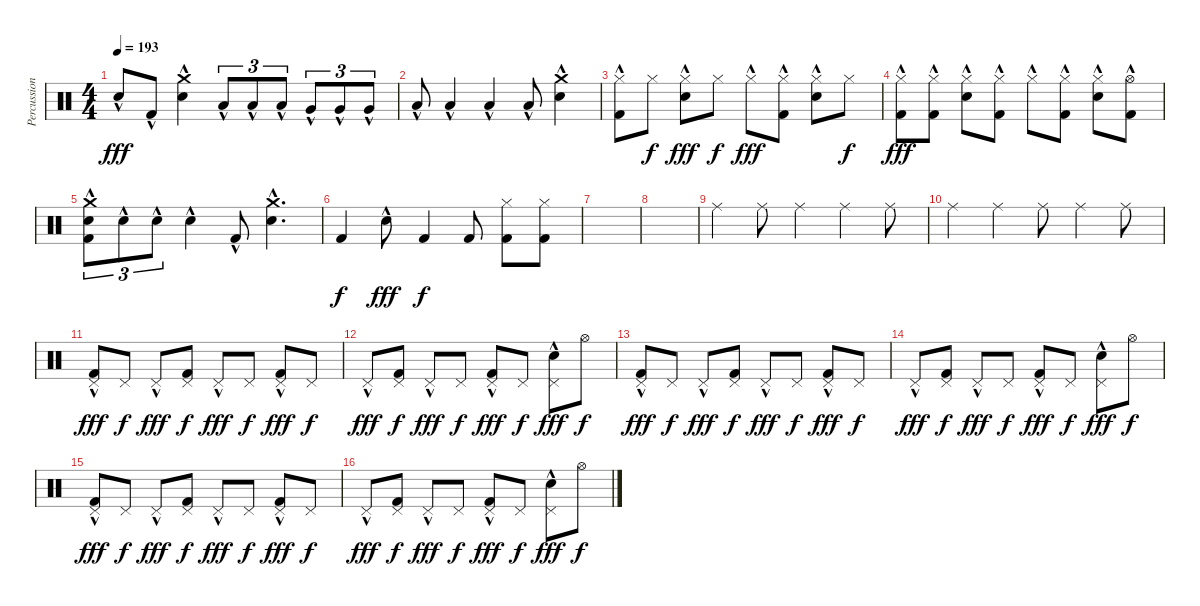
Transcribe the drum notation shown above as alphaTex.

\track ("Percussion" "Percussion") {instrument percussion}
\staff {score}
\articulation defaults
\ts (4 4)
\tempo 193
\clef neutral
\ks c "Electric Snare (hit)"{hac}.8{dy fff} "Kick (hit) 2"{hac}.8
("Crash medium (hit)"{hac} "Electric Snare (hit)"{hac}).4 "Low Tom (hit)"{hac}.8{tu (3 2)} "Low Tom (hit)"{hac}.8{tu (3 2)} "Low Tom (hit)"{hac}.8{tu (3 2)} "Very Low Tom (hit)"{hac}.8{tu (3 2)} "Very Low Tom (hit)"{hac}.8{tu (3 2)} "Very Low Tom (hit)"{hac}.8{tu (3 2)} |
"Low Floor Tom (hit)"{hac}.8 "Low Floor Tom (hit)"{hac}.4 "Low Floor Tom (hit)"{hac}.4 "Low Floor Tom (hit)"{hac}.8 ("Crash medium (hit)"{hac} "Electric Snare (hit)"{hac}).4 |
("Hi-Hat (closed)"{hac} "Kick (hit) 2"{hac}).8 "Hi-Hat (closed)".8{dy f} ("Hi-Hat (closed)"{hac} "Electric Snare (hit)"{hac}).8{dy fff} "Hi-Hat (closed)".8{dy f} "Hi-Hat (closed)"{hac}.8{dy fff} ("Hi-Hat (closed)" "Kick (hit) 2"{hac}).8 ("Hi-Hat (closed)"{hac} "Electric Snare (hit)"{hac}).8 "Hi-Hat (closed)".8{dy f} |
("Hi-Hat (closed)"{hac} "Kick (hit) 2"{hac}).8{dy fff} ("Hi-Hat (closed)" "Kick (hit) 2"{hac}).8 ("Hi-Hat (closed)"{hac} "Electric Snare (hit)"{hac}).8 ("Hi-Hat (closed)" "Kick (hit) 2"{hac}).8 "Hi-Hat (closed)"{hac}.8 ("Hi-Hat (closed)" "Kick (hit) 2"{hac}).8 ("Hi-Hat (closed)"{hac} "Electric Snare (hit)"{hac}).8 ("Hi-Hat (open)" "Kick (hit) 2"{hac}).8 |
("Crash medium (hit)" "Electric Snare (hit)"{hac} "Kick (hit) 2"{hac}).8{tu (3 2)} "Electric Snare (hit)"{hac}.8{tu (3 2)} "Electric Snare (hit)"{hac}.8{tu (3 2)} "Electric Snare (hit)"{hac}.4 "Kick (hit) 2"{hac}.8 ("Crash medium (hit)" "Electric Snare (hit)"{hac}).4{d} |
"Kick (hit) 2".4{dy f} "Electric Snare (hit)"{hac}.8{dy fff} "Kick (hit) 2".4{dy f} "Kick (hit) 2".8 ("Hi-Hat (closed)" "Kick (hit) 2").8 ("Hi-Hat (closed)" "Kick (hit) 2").8 |
|
|
"Ride (middle)".4 "Ride (middle)".8 "Ride (middle)".4 "Ride (middle)".4 "Ride (middle)".8 |
"Ride (middle)".4 "Ride (middle)".4 "Ride (middle)".8 "Ride (middle)".4 "Ride (middle)".8 |
("Pedal Hi-Hat (hit)"{hac} "Kick (hit) 2").8{dy fff} "Pedal Hi-Hat (hit)".8{dy f} "Pedal Hi-Hat (hit)"{hac}.8{dy fff} ("Pedal Hi-Hat (hit)" "Kick (hit) 2").8{dy f} "Pedal Hi-Hat (hit)"{hac}.8{dy fff} "Pedal Hi-Hat (hit)".8{dy f} ("Pedal Hi-Hat (hit)"{hac} "Kick (hit) 2").8{dy fff} "Pedal Hi-Hat (hit)".8{dy f} |
"Pedal Hi-Hat (hit)"{hac}.8{dy fff} ("Pedal Hi-Hat (hit)" "Kick (hit) 2").8{dy f} "Pedal Hi-Hat (hit)"{hac}.8{dy fff} "Pedal Hi-Hat (hit)".8{dy f} ("Pedal Hi-Hat (hit)"{hac} "Kick (hit) 2").8{dy fff} "Pedal Hi-Hat (hit)".8{dy f} ("Pedal Hi-Hat (hit)"{hac} "Electric Snare (hit)"{hac}).8{dy fff} "Hi-Hat (open)".8{dy f} |
("Pedal Hi-Hat (hit)"{hac} "Kick (hit) 2").8{dy fff} "Pedal Hi-Hat (hit)".8{dy f} "Pedal Hi-Hat (hit)"{hac}.8{dy fff} ("Pedal Hi-Hat (hit)" "Kick (hit) 2").8{dy f} "Pedal Hi-Hat (hit)"{hac}.8{dy fff} "Pedal Hi-Hat (hit)".8{dy f} ("Pedal Hi-Hat (hit)"{hac} "Kick (hit) 2").8{dy fff} "Pedal Hi-Hat (hit)".8{dy f} |
"Pedal Hi-Hat (hit)"{hac}.8{dy fff} ("Pedal Hi-Hat (hit)" "Kick (hit) 2").8{dy f} "Pedal Hi-Hat (hit)"{hac}.8{dy fff} "Pedal Hi-Hat (hit)".8{dy f} ("Pedal Hi-Hat (hit)"{hac} "Kick (hit) 2").8{dy fff} "Pedal Hi-Hat (hit)".8{dy f} ("Pedal Hi-Hat (hit)"{hac} "Electric Snare (hit)"{hac}).8{dy fff} "Hi-Hat (open)".8{dy f} |
("Pedal Hi-Hat (hit)"{hac} "Kick (hit) 2").8{dy fff} "Pedal Hi-Hat (hit)".8{dy f} "Pedal Hi-Hat (hit)"{hac}.8{dy fff} ("Pedal Hi-Hat (hit)" "Kick (hit) 2").8{dy f} "Pedal Hi-Hat (hit)"{hac}.8{dy fff} "Pedal Hi-Hat (hit)".8{dy f} ("Pedal Hi-Hat (hit)"{hac} "Kick (hit) 2").8{dy fff} "Pedal Hi-Hat (hit)".8{dy f} |
"Pedal Hi-Hat (hit)"{hac}.8{dy fff} ("Pedal Hi-Hat (hit)" "Kick (hit) 2").8{dy f} "Pedal Hi-Hat (hit)"{hac}.8{dy fff} "Pedal Hi-Hat (hit)".8{dy f} ("Pedal Hi-Hat (hit)"{hac} "Kick (hit) 2").8{dy fff} "Pedal Hi-Hat (hit)".8{dy f} ("Pedal Hi-Hat (hit)"{hac} "Electric Snare (hit)"{hac}).8{dy fff} "Hi-Hat (open)".8{dy f}
